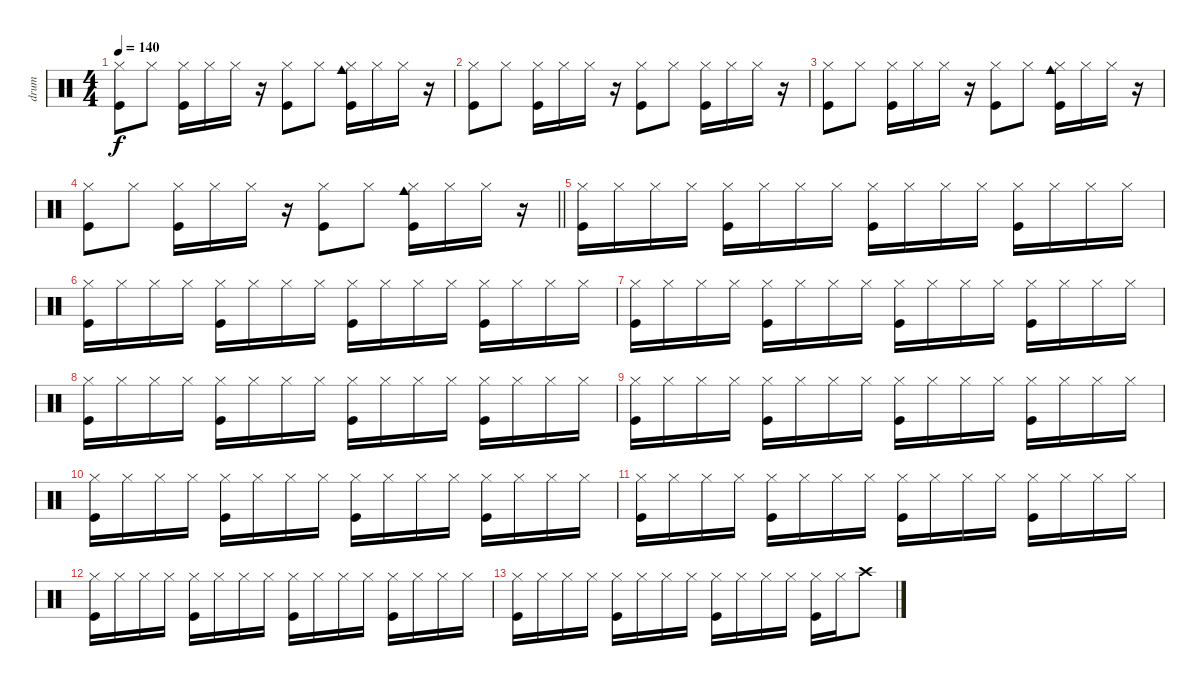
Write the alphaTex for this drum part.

\track ("drum" "drum") {instrument percussion}
\staff {score}
\articulation defaults
\ts (4 4)
\tempo 140
\clef neutral
\ks c
("Hi-Hat (closed)" "Kick (hit)").8{dy f} "Hi-Hat (closed)".8 ("Hi-Hat (closed)" "Kick (hit)").16 "Hi-Hat (closed)".16 "Hi-Hat (closed)".16 r.16 ("Hi-Hat (closed)" "Kick (hit)").8 "Hi-Hat (closed)".8 ("Hi-Hat (closed)" "Cowbell medium (hit)" "Kick (hit)").16 "Hi-Hat (closed)".16 "Hi-Hat (closed)".16 r.16 |
("Hi-Hat (closed)" "Kick (hit)").8 "Hi-Hat (closed)".8 ("Hi-Hat (closed)" "Kick (hit)").16 "Hi-Hat (closed)".16 "Hi-Hat (closed)".16 r.16 ("Hi-Hat (closed)" "Kick (hit)").8 "Hi-Hat (closed)".8 ("Hi-Hat (closed)" "Kick (hit)").16 "Hi-Hat (closed)".16 "Hi-Hat (closed)".16 r.16 |
("Hi-Hat (closed)" "Kick (hit)").8 "Hi-Hat (closed)".8 ("Hi-Hat (closed)" "Kick (hit)").16 "Hi-Hat (closed)".16 "Hi-Hat (closed)".16 r.16 ("Hi-Hat (closed)" "Kick (hit)").8 "Hi-Hat (closed)".8 ("Hi-Hat (closed)" "Cowbell medium (hit)" "Kick (hit)").16 "Hi-Hat (closed)".16 "Hi-Hat (closed)".16 r.16 |
\barLineRight lightlight
("Hi-Hat (closed)" "Kick (hit)").8 "Hi-Hat (closed)".8 ("Hi-Hat (closed)" "Kick (hit)").16 "Hi-Hat (closed)".16 "Hi-Hat (closed)".16 r.16 ("Hi-Hat (closed)" "Kick (hit)").8 "Hi-Hat (closed)".8 ("Hi-Hat (closed)" "Cowbell medium (hit)" "Kick (hit)").16 "Hi-Hat (closed)".16 "Hi-Hat (closed)".16 r.16 |
("Hi-Hat (closed)" "Kick (hit)").16 "Hi-Hat (closed)".16 "Hi-Hat (closed)".16 "Hi-Hat (closed)".16 ("Hi-Hat (closed)" "Kick (hit)").16 "Hi-Hat (closed)".16 "Hi-Hat (closed)".16 "Hi-Hat (closed)".16 ("Hi-Hat (closed)" "Kick (hit)").16 "Hi-Hat (closed)".16 "Hi-Hat (closed)".16 "Hi-Hat (closed)".16 ("Hi-Hat (closed)" "Kick (hit)").16 "Hi-Hat (closed)".16 "Hi-Hat (closed)".16 "Hi-Hat (closed)".16 |
("Hi-Hat (closed)" "Kick (hit)").16 "Hi-Hat (closed)".16 "Hi-Hat (closed)".16 "Hi-Hat (closed)".16 ("Hi-Hat (closed)" "Kick (hit)").16 "Hi-Hat (closed)".16 "Hi-Hat (closed)".16 "Hi-Hat (closed)".16 ("Hi-Hat (closed)" "Kick (hit)").16 "Hi-Hat (closed)".16 "Hi-Hat (closed)".16 "Hi-Hat (closed)".16 ("Hi-Hat (closed)" "Kick (hit)").16 "Hi-Hat (closed)".16 "Hi-Hat (closed)".16 "Hi-Hat (closed)".16 |
("Hi-Hat (closed)" "Kick (hit)").16 "Hi-Hat (closed)".16 "Hi-Hat (closed)".16 "Hi-Hat (closed)".16 ("Hi-Hat (closed)" "Kick (hit)").16 "Hi-Hat (closed)".16 "Hi-Hat (closed)".16 "Hi-Hat (closed)".16 ("Hi-Hat (closed)" "Kick (hit)").16 "Hi-Hat (closed)".16 "Hi-Hat (closed)".16 "Hi-Hat (closed)".16 ("Hi-Hat (closed)" "Kick (hit)").16 "Hi-Hat (closed)".16 "Hi-Hat (closed)".16 "Hi-Hat (closed)".16 |
("Hi-Hat (closed)" "Kick (hit)").16 "Hi-Hat (closed)".16 "Hi-Hat (closed)".16 "Hi-Hat (closed)".16 ("Hi-Hat (closed)" "Kick (hit)").16 "Hi-Hat (closed)".16 "Hi-Hat (closed)".16 "Hi-Hat (closed)".16 ("Hi-Hat (closed)" "Kick (hit)").16 "Hi-Hat (closed)".16 "Hi-Hat (closed)".16 "Hi-Hat (closed)".16 ("Hi-Hat (closed)" "Kick (hit)").16 "Hi-Hat (closed)".16 "Hi-Hat (closed)".16 "Hi-Hat (closed)".16 |
("Hi-Hat (closed)" "Kick (hit)").16 "Hi-Hat (closed)".16 "Hi-Hat (closed)".16 "Hi-Hat (closed)".16 ("Hi-Hat (closed)" "Kick (hit)").16 "Hi-Hat (closed)".16 "Hi-Hat (closed)".16 "Hi-Hat (closed)".16 ("Hi-Hat (closed)" "Kick (hit)").16 "Hi-Hat (closed)".16 "Hi-Hat (closed)".16 "Hi-Hat (closed)".16 ("Hi-Hat (closed)" "Kick (hit)").16 "Hi-Hat (closed)".16 "Hi-Hat (closed)".16 "Hi-Hat (closed)".16 |
("Hi-Hat (closed)" "Kick (hit)").16 "Hi-Hat (closed)".16 "Hi-Hat (closed)".16 "Hi-Hat (closed)".16 ("Hi-Hat (closed)" "Kick (hit)").16 "Hi-Hat (closed)".16 "Hi-Hat (closed)".16 "Hi-Hat (closed)".16 ("Hi-Hat (closed)" "Kick (hit)").16 "Hi-Hat (closed)".16 "Hi-Hat (closed)".16 "Hi-Hat (closed)".16 ("Hi-Hat (closed)" "Kick (hit)").16 "Hi-Hat (closed)".16 "Hi-Hat (closed)".16 "Hi-Hat (closed)".16 |
("Hi-Hat (closed)" "Kick (hit)").16 "Hi-Hat (closed)".16 "Hi-Hat (closed)".16 "Hi-Hat (closed)".16 ("Hi-Hat (closed)" "Kick (hit)").16 "Hi-Hat (closed)".16 "Hi-Hat (closed)".16 "Hi-Hat (closed)".16 ("Hi-Hat (closed)" "Kick (hit)").16 "Hi-Hat (closed)".16 "Hi-Hat (closed)".16 "Hi-Hat (closed)".16 ("Hi-Hat (closed)" "Kick (hit)").16 "Hi-Hat (closed)".16 "Hi-Hat (closed)".16 "Hi-Hat (closed)".16 |
("Hi-Hat (closed)" "Kick (hit)").16 "Hi-Hat (closed)".16 "Hi-Hat (closed)".16 "Hi-Hat (closed)".16 ("Hi-Hat (closed)" "Kick (hit)").16 "Hi-Hat (closed)".16 "Hi-Hat (closed)".16 "Hi-Hat (closed)".16 ("Hi-Hat (closed)" "Kick (hit)").16 "Hi-Hat (closed)".16 "Hi-Hat (closed)".16 "Hi-Hat (closed)".16 ("Hi-Hat (closed)" "Kick (hit)").16 "Hi-Hat (closed)".16 "Hi-Hat (closed)".16 "Hi-Hat (closed)".16 |
("Hi-Hat (closed)" "Kick (hit)").16 "Hi-Hat (closed)".16 "Hi-Hat (closed)".16 "Hi-Hat (closed)".16 ("Hi-Hat (closed)" "Kick (hit)").16 "Hi-Hat (closed)".16 "Hi-Hat (closed)".16 "Hi-Hat (closed)".16 ("Hi-Hat (closed)" "Kick (hit)").16 "Hi-Hat (closed)".16 "Hi-Hat (closed)".16 "Hi-Hat (closed)".16 ("Hi-Hat (closed)" "Kick (hit)").16 "Hi-Hat (closed)".16 "Crash high (hit)".8
